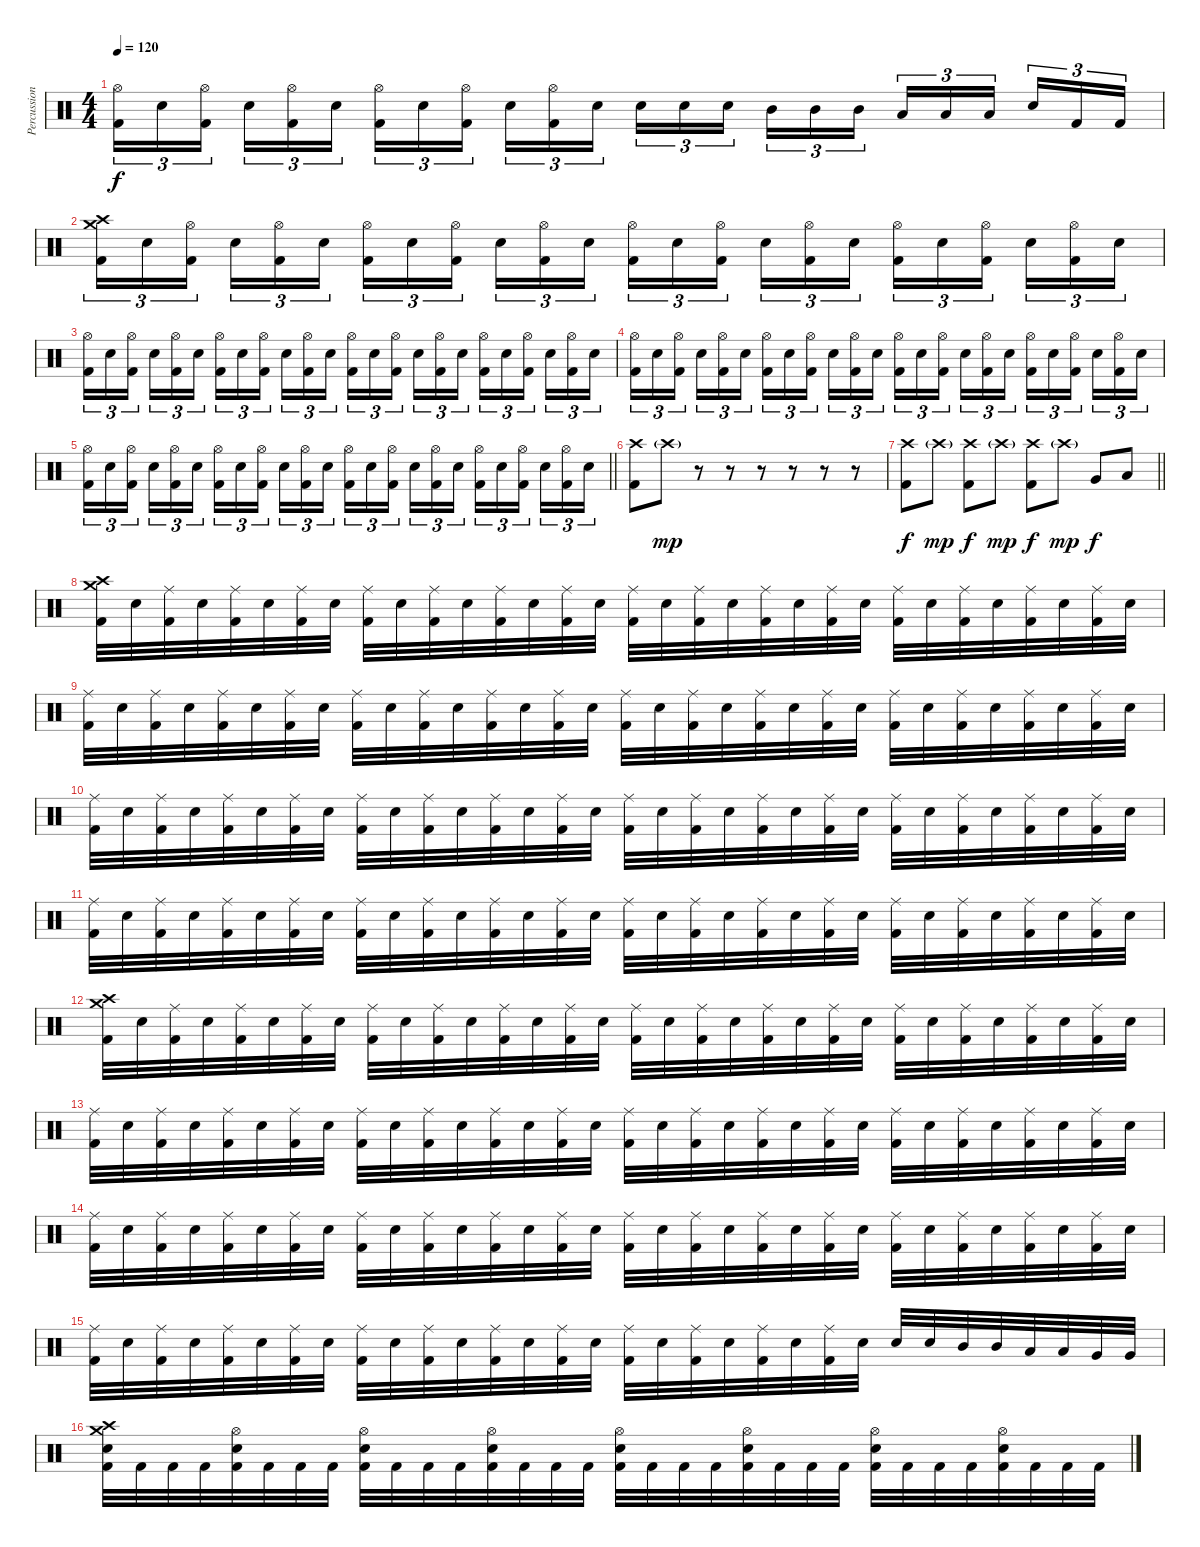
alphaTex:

\track ("Percussion" "Percussion") {instrument percussion}
\staff {score}
\articulation defaults
\ts (4 4)
\tempo 120
\clef neutral
\ks c
("Hi-Hat (open)" "Kick (hit) 2").16{tu (3 2) dy f} "Electric Snare (hit)".16{tu (3 2)} ("Hi-Hat (open)" "Kick (hit) 2").16{tu (3 2) beam splitsecondary} "Electric Snare (hit)".16{tu (3 2)} ("Hi-Hat (open)" "Kick (hit) 2").16{tu (3 2)} "Electric Snare (hit)".16{tu (3 2)} ("Hi-Hat (open)" "Kick (hit) 2").16{tu (3 2)} "Electric Snare (hit)".16{tu (3 2)} ("Hi-Hat (open)" "Kick (hit) 2").16{tu (3 2) beam splitsecondary} "Electric Snare (hit)".16{tu (3 2)} ("Hi-Hat (open)" "Kick (hit) 2").16{tu (3 2)} "Electric Snare (hit)".16{tu (3 2)} "Electric Snare (hit)".16{tu (3 2)} "Electric Snare (hit)".16{tu (3 2)} "Electric Snare (hit)".16{tu (3 2) beam splitsecondary} "Mid Tom (hit)".16{tu (3 2)} "Mid Tom (hit)".16{tu (3 2)} "Mid Tom (hit)".16{tu (3 2)} "Low Tom (hit)".16{tu (3 2)} "Low Tom (hit)".16{tu (3 2)} "Low Tom (hit)".16{tu (3 2) beam splitsecondary} "Electric Snare (hit)".16{tu (3 2)} "Kick (hit) 2".16{tu (3 2)} "Kick (hit) 2".16{tu (3 2)} |
("Crash medium (hit)" "Crash high (hit)" "Kick (hit) 2").16{tu (3 2)} "Electric Snare (hit)".16{tu (3 2)} ("Hi-Hat (open)" "Kick (hit) 2").16{tu (3 2) beam splitsecondary} "Electric Snare (hit)".16{tu (3 2)} ("Hi-Hat (open)" "Kick (hit) 2").16{tu (3 2)} "Electric Snare (hit)".16{tu (3 2)} ("Hi-Hat (open)" "Kick (hit) 2").16{tu (3 2)} "Electric Snare (hit)".16{tu (3 2)} ("Hi-Hat (open)" "Kick (hit) 2").16{tu (3 2) beam splitsecondary} "Electric Snare (hit)".16{tu (3 2)} ("Hi-Hat (open)" "Kick (hit) 2").16{tu (3 2)} "Electric Snare (hit)".16{tu (3 2)} ("Hi-Hat (open)" "Kick (hit) 2").16{tu (3 2)} "Electric Snare (hit)".16{tu (3 2)} ("Hi-Hat (open)" "Kick (hit) 2").16{tu (3 2) beam splitsecondary} "Electric Snare (hit)".16{tu (3 2)} ("Hi-Hat (open)" "Kick (hit) 2").16{tu (3 2)} "Electric Snare (hit)".16{tu (3 2)} ("Hi-Hat (open)" "Kick (hit) 2").16{tu (3 2)} "Electric Snare (hit)".16{tu (3 2)} ("Hi-Hat (open)" "Kick (hit) 2").16{tu (3 2) beam splitsecondary} "Electric Snare (hit)".16{tu (3 2)} ("Hi-Hat (open)" "Kick (hit) 2").16{tu (3 2)} "Electric Snare (hit)".16{tu (3 2)} |
("Hi-Hat (open)" "Kick (hit) 2").16{tu (3 2)} "Electric Snare (hit)".16{tu (3 2)} ("Hi-Hat (open)" "Kick (hit) 2").16{tu (3 2) beam splitsecondary} "Electric Snare (hit)".16{tu (3 2)} ("Hi-Hat (open)" "Kick (hit) 2").16{tu (3 2)} "Electric Snare (hit)".16{tu (3 2)} ("Hi-Hat (open)" "Kick (hit) 2").16{tu (3 2)} "Electric Snare (hit)".16{tu (3 2)} ("Hi-Hat (open)" "Kick (hit) 2").16{tu (3 2) beam splitsecondary} "Electric Snare (hit)".16{tu (3 2)} ("Hi-Hat (open)" "Kick (hit) 2").16{tu (3 2)} "Electric Snare (hit)".16{tu (3 2)} ("Hi-Hat (open)" "Kick (hit) 2").16{tu (3 2)} "Electric Snare (hit)".16{tu (3 2)} ("Hi-Hat (open)" "Kick (hit) 2").16{tu (3 2) beam splitsecondary} "Electric Snare (hit)".16{tu (3 2)} ("Hi-Hat (open)" "Kick (hit) 2").16{tu (3 2)} "Electric Snare (hit)".16{tu (3 2)} ("Hi-Hat (open)" "Kick (hit) 2").16{tu (3 2)} "Electric Snare (hit)".16{tu (3 2)} ("Hi-Hat (open)" "Kick (hit) 2").16{tu (3 2) beam splitsecondary} "Electric Snare (hit)".16{tu (3 2)} ("Hi-Hat (open)" "Kick (hit) 2").16{tu (3 2)} "Electric Snare (hit)".16{tu (3 2)} |
("Hi-Hat (open)" "Kick (hit) 2").16{tu (3 2)} "Electric Snare (hit)".16{tu (3 2)} ("Hi-Hat (open)" "Kick (hit) 2").16{tu (3 2) beam splitsecondary} "Electric Snare (hit)".16{tu (3 2)} ("Hi-Hat (open)" "Kick (hit) 2").16{tu (3 2)} "Electric Snare (hit)".16{tu (3 2)} ("Hi-Hat (open)" "Kick (hit) 2").16{tu (3 2)} "Electric Snare (hit)".16{tu (3 2)} ("Hi-Hat (open)" "Kick (hit) 2").16{tu (3 2) beam splitsecondary} "Electric Snare (hit)".16{tu (3 2)} ("Hi-Hat (open)" "Kick (hit) 2").16{tu (3 2)} "Electric Snare (hit)".16{tu (3 2)} ("Hi-Hat (open)" "Kick (hit) 2").16{tu (3 2)} "Electric Snare (hit)".16{tu (3 2)} ("Hi-Hat (open)" "Kick (hit) 2").16{tu (3 2) beam splitsecondary} "Electric Snare (hit)".16{tu (3 2)} ("Hi-Hat (open)" "Kick (hit) 2").16{tu (3 2)} "Electric Snare (hit)".16{tu (3 2)} ("Hi-Hat (open)" "Kick (hit) 2").16{tu (3 2)} "Electric Snare (hit)".16{tu (3 2)} ("Hi-Hat (open)" "Kick (hit) 2").16{tu (3 2) beam splitsecondary} "Electric Snare (hit)".16{tu (3 2)} ("Hi-Hat (open)" "Kick (hit) 2").16{tu (3 2)} "Electric Snare (hit)".16{tu (3 2)} |
\barLineRight lightlight
("Hi-Hat (open)" "Kick (hit) 2").16{tu (3 2)} "Electric Snare (hit)".16{tu (3 2)} ("Hi-Hat (open)" "Kick (hit) 2").16{tu (3 2) beam splitsecondary} "Electric Snare (hit)".16{tu (3 2)} ("Hi-Hat (open)" "Kick (hit) 2").16{tu (3 2)} "Electric Snare (hit)".16{tu (3 2)} ("Hi-Hat (open)" "Kick (hit) 2").16{tu (3 2)} "Electric Snare (hit)".16{tu (3 2)} ("Hi-Hat (open)" "Kick (hit) 2").16{tu (3 2) beam splitsecondary} "Electric Snare (hit)".16{tu (3 2)} ("Hi-Hat (open)" "Kick (hit) 2").16{tu (3 2)} "Electric Snare (hit)".16{tu (3 2)} ("Hi-Hat (open)" "Kick (hit) 2").16{tu (3 2)} "Electric Snare (hit)".16{tu (3 2)} ("Hi-Hat (open)" "Kick (hit) 2").16{tu (3 2) beam splitsecondary} "Electric Snare (hit)".16{tu (3 2)} ("Hi-Hat (open)" "Kick (hit) 2").16{tu (3 2)} "Electric Snare (hit)".16{tu (3 2)} ("Hi-Hat (open)" "Kick (hit) 2").16{tu (3 2)} "Electric Snare (hit)".16{tu (3 2)} ("Hi-Hat (open)" "Kick (hit) 2").16{tu (3 2) beam splitsecondary} "Electric Snare (hit)".16{tu (3 2)} ("Hi-Hat (open)" "Kick (hit) 2").16{tu (3 2)} "Electric Snare (hit)".16{tu (3 2)} |
("Crash high (hit)" "Kick (hit) 2").8 "Crash high (hit)"{g}.8{dy mp} r.8 r.8 r.8 r.8 r.8 r.8 |
\barLineRight lightlight
("Crash high (hit)" "Kick (hit) 2").8{dy f} "Crash high (hit)"{g}.8{dy mp} ("Crash high (hit)" "Kick (hit) 2").8{dy f} "Crash high (hit)"{g}.8{dy mp} ("Crash high (hit)" "Kick (hit) 2").8{dy f} "Crash high (hit)"{g}.8{dy mp} "Very Low Tom (hit)".8{dy f} "Low Floor Tom (hit)".8 |
("Crash medium (hit)" "Crash high (hit)" "Kick (hit) 2").32 "Electric Snare (hit)".32 ("Ride (middle)" "Kick (hit) 2").32 "Electric Snare (hit)".32 ("Ride (middle)" "Kick (hit) 2").32 "Electric Snare (hit)".32 ("Ride (middle)" "Kick (hit) 2").32 "Electric Snare (hit)".32 ("Ride (middle)" "Kick (hit) 2").32 "Electric Snare (hit)".32 ("Ride (middle)" "Kick (hit) 2").32 "Electric Snare (hit)".32 ("Ride (middle)" "Kick (hit) 2").32 "Electric Snare (hit)".32 ("Ride (middle)" "Kick (hit) 2").32 "Electric Snare (hit)".32 ("Ride (middle)" "Kick (hit) 2").32 "Electric Snare (hit)".32 ("Ride (middle)" "Kick (hit) 2").32 "Electric Snare (hit)".32 ("Ride (middle)" "Kick (hit) 2").32 "Electric Snare (hit)".32 ("Ride (middle)" "Kick (hit) 2").32 "Electric Snare (hit)".32 ("Ride (middle)" "Kick (hit) 2").32 "Electric Snare (hit)".32 ("Ride (middle)" "Kick (hit) 2").32 "Electric Snare (hit)".32 ("Ride (middle)" "Kick (hit) 2").32 "Electric Snare (hit)".32 ("Ride (middle)" "Kick (hit) 2").32 "Electric Snare (hit)".32 |
("Ride (middle)" "Kick (hit) 2").32 "Electric Snare (hit)".32 ("Ride (middle)" "Kick (hit) 2").32 "Electric Snare (hit)".32 ("Ride (middle)" "Kick (hit) 2").32 "Electric Snare (hit)".32 ("Ride (middle)" "Kick (hit) 2").32 "Electric Snare (hit)".32 ("Ride (middle)" "Kick (hit) 2").32 "Electric Snare (hit)".32 ("Ride (middle)" "Kick (hit) 2").32 "Electric Snare (hit)".32 ("Ride (middle)" "Kick (hit) 2").32 "Electric Snare (hit)".32 ("Ride (middle)" "Kick (hit) 2").32 "Electric Snare (hit)".32 ("Ride (middle)" "Kick (hit) 2").32 "Electric Snare (hit)".32 ("Ride (middle)" "Kick (hit) 2").32 "Electric Snare (hit)".32 ("Ride (middle)" "Kick (hit) 2").32 "Electric Snare (hit)".32 ("Ride (middle)" "Kick (hit) 2").32 "Electric Snare (hit)".32 ("Ride (middle)" "Kick (hit) 2").32 "Electric Snare (hit)".32 ("Ride (middle)" "Kick (hit) 2").32 "Electric Snare (hit)".32 ("Ride (middle)" "Kick (hit) 2").32 "Electric Snare (hit)".32 ("Ride (middle)" "Kick (hit) 2").32 "Electric Snare (hit)".32 |
("Ride (middle)" "Kick (hit) 2").32 "Electric Snare (hit)".32 ("Ride (middle)" "Kick (hit) 2").32 "Electric Snare (hit)".32 ("Ride (middle)" "Kick (hit) 2").32 "Electric Snare (hit)".32 ("Ride (middle)" "Kick (hit) 2").32 "Electric Snare (hit)".32 ("Ride (middle)" "Kick (hit) 2").32 "Electric Snare (hit)".32 ("Ride (middle)" "Kick (hit) 2").32 "Electric Snare (hit)".32 ("Ride (middle)" "Kick (hit) 2").32 "Electric Snare (hit)".32 ("Ride (middle)" "Kick (hit) 2").32 "Electric Snare (hit)".32 ("Ride (middle)" "Kick (hit) 2").32 "Electric Snare (hit)".32 ("Ride (middle)" "Kick (hit) 2").32 "Electric Snare (hit)".32 ("Ride (middle)" "Kick (hit) 2").32 "Electric Snare (hit)".32 ("Ride (middle)" "Kick (hit) 2").32 "Electric Snare (hit)".32 ("Ride (middle)" "Kick (hit) 2").32 "Electric Snare (hit)".32 ("Ride (middle)" "Kick (hit) 2").32 "Electric Snare (hit)".32 ("Ride (middle)" "Kick (hit) 2").32 "Electric Snare (hit)".32 ("Ride (middle)" "Kick (hit) 2").32 "Electric Snare (hit)".32 |
("Ride (middle)" "Kick (hit) 2").32 "Electric Snare (hit)".32 ("Ride (middle)" "Kick (hit) 2").32 "Electric Snare (hit)".32 ("Ride (middle)" "Kick (hit) 2").32 "Electric Snare (hit)".32 ("Ride (middle)" "Kick (hit) 2").32 "Electric Snare (hit)".32 ("Ride (middle)" "Kick (hit) 2").32 "Electric Snare (hit)".32 ("Ride (middle)" "Kick (hit) 2").32 "Electric Snare (hit)".32 ("Ride (middle)" "Kick (hit) 2").32 "Electric Snare (hit)".32 ("Ride (middle)" "Kick (hit) 2").32 "Electric Snare (hit)".32 ("Ride (middle)" "Kick (hit) 2").32 "Electric Snare (hit)".32 ("Ride (middle)" "Kick (hit) 2").32 "Electric Snare (hit)".32 ("Ride (middle)" "Kick (hit) 2").32 "Electric Snare (hit)".32 ("Ride (middle)" "Kick (hit) 2").32 "Electric Snare (hit)".32 ("Ride (middle)" "Kick (hit) 2").32 "Electric Snare (hit)".32 ("Ride (middle)" "Kick (hit) 2").32 "Electric Snare (hit)".32 ("Ride (middle)" "Kick (hit) 2").32 "Electric Snare (hit)".32 ("Ride (middle)" "Kick (hit) 2").32 "Electric Snare (hit)".32 |
("Crash medium (hit)" "Crash high (hit)" "Kick (hit) 2").32 "Electric Snare (hit)".32 ("Ride (middle)" "Kick (hit) 2").32 "Electric Snare (hit)".32 ("Ride (middle)" "Kick (hit) 2").32 "Electric Snare (hit)".32 ("Ride (middle)" "Kick (hit) 2").32 "Electric Snare (hit)".32 ("Ride (middle)" "Kick (hit) 2").32 "Electric Snare (hit)".32 ("Ride (middle)" "Kick (hit) 2").32 "Electric Snare (hit)".32 ("Ride (middle)" "Kick (hit) 2").32 "Electric Snare (hit)".32 ("Ride (middle)" "Kick (hit) 2").32 "Electric Snare (hit)".32 ("Ride (middle)" "Kick (hit) 2").32 "Electric Snare (hit)".32 ("Ride (middle)" "Kick (hit) 2").32 "Electric Snare (hit)".32 ("Ride (middle)" "Kick (hit) 2").32 "Electric Snare (hit)".32 ("Ride (middle)" "Kick (hit) 2").32 "Electric Snare (hit)".32 ("Ride (middle)" "Kick (hit) 2").32 "Electric Snare (hit)".32 ("Ride (middle)" "Kick (hit) 2").32 "Electric Snare (hit)".32 ("Ride (middle)" "Kick (hit) 2").32 "Electric Snare (hit)".32 ("Ride (middle)" "Kick (hit) 2").32 "Electric Snare (hit)".32 |
("Ride (middle)" "Kick (hit) 2").32 "Electric Snare (hit)".32 ("Ride (middle)" "Kick (hit) 2").32 "Electric Snare (hit)".32 ("Ride (middle)" "Kick (hit) 2").32 "Electric Snare (hit)".32 ("Ride (middle)" "Kick (hit) 2").32 "Electric Snare (hit)".32 ("Ride (middle)" "Kick (hit) 2").32 "Electric Snare (hit)".32 ("Ride (middle)" "Kick (hit) 2").32 "Electric Snare (hit)".32 ("Ride (middle)" "Kick (hit) 2").32 "Electric Snare (hit)".32 ("Ride (middle)" "Kick (hit) 2").32 "Electric Snare (hit)".32 ("Ride (middle)" "Kick (hit) 2").32 "Electric Snare (hit)".32 ("Ride (middle)" "Kick (hit) 2").32 "Electric Snare (hit)".32 ("Ride (middle)" "Kick (hit) 2").32 "Electric Snare (hit)".32 ("Ride (middle)" "Kick (hit) 2").32 "Electric Snare (hit)".32 ("Ride (middle)" "Kick (hit) 2").32 "Electric Snare (hit)".32 ("Ride (middle)" "Kick (hit) 2").32 "Electric Snare (hit)".32 ("Ride (middle)" "Kick (hit) 2").32 "Electric Snare (hit)".32 ("Ride (middle)" "Kick (hit) 2").32 "Electric Snare (hit)".32 |
("Ride (middle)" "Kick (hit) 2").32 "Electric Snare (hit)".32 ("Ride (middle)" "Kick (hit) 2").32 "Electric Snare (hit)".32 ("Ride (middle)" "Kick (hit) 2").32 "Electric Snare (hit)".32 ("Ride (middle)" "Kick (hit) 2").32 "Electric Snare (hit)".32 ("Ride (middle)" "Kick (hit) 2").32 "Electric Snare (hit)".32 ("Ride (middle)" "Kick (hit) 2").32 "Electric Snare (hit)".32 ("Ride (middle)" "Kick (hit) 2").32 "Electric Snare (hit)".32 ("Ride (middle)" "Kick (hit) 2").32 "Electric Snare (hit)".32 ("Ride (middle)" "Kick (hit) 2").32 "Electric Snare (hit)".32 ("Ride (middle)" "Kick (hit) 2").32 "Electric Snare (hit)".32 ("Ride (middle)" "Kick (hit) 2").32 "Electric Snare (hit)".32 ("Ride (middle)" "Kick (hit) 2").32 "Electric Snare (hit)".32 ("Ride (middle)" "Kick (hit) 2").32 "Electric Snare (hit)".32 ("Ride (middle)" "Kick (hit) 2").32 "Electric Snare (hit)".32 ("Ride (middle)" "Kick (hit) 2").32 "Electric Snare (hit)".32 ("Ride (middle)" "Kick (hit) 2").32 "Electric Snare (hit)".32 |
("Ride (middle)" "Kick (hit) 2").32 "Electric Snare (hit)".32 ("Ride (middle)" "Kick (hit) 2").32 "Electric Snare (hit)".32 ("Ride (middle)" "Kick (hit) 2").32 "Electric Snare (hit)".32 ("Ride (middle)" "Kick (hit) 2").32 "Electric Snare (hit)".32 ("Ride (middle)" "Kick (hit) 2").32 "Electric Snare (hit)".32 ("Ride (middle)" "Kick (hit) 2").32 "Electric Snare (hit)".32 ("Ride (middle)" "Kick (hit) 2").32 "Electric Snare (hit)".32 ("Ride (middle)" "Kick (hit) 2").32 "Electric Snare (hit)".32 ("Ride (middle)" "Kick (hit) 2").32 "Electric Snare (hit)".32 ("Ride (middle)" "Kick (hit) 2").32 "Electric Snare (hit)".32 ("Ride (middle)" "Kick (hit) 2").32 "Electric Snare (hit)".32 ("Ride (middle)" "Kick (hit) 2").32 "Electric Snare (hit)".32 "Electric Snare (hit)".32 "Electric Snare (hit)".32 "Mid Tom (hit)".32 "Mid Tom (hit)".32 "Low Tom (hit)".32 "Low Tom (hit)".32 "Very Low Tom (hit)".32 "Very Low Tom (hit)".32 |
("Crash medium (hit)" "Crash high (hit)" "Electric Snare (hit)" "Kick (hit) 2").32 "Kick (hit) 2".32 "Kick (hit) 2".32 "Kick (hit) 2".32 ("Hi-Hat (open)" "Electric Snare (hit)" "Kick (hit) 2").32 "Kick (hit) 2".32 "Kick (hit) 2".32 "Kick (hit) 2".32 ("Hi-Hat (open)" "Electric Snare (hit)" "Kick (hit) 2").32 "Kick (hit) 2".32 "Kick (hit) 2".32 "Kick (hit) 2".32 ("Hi-Hat (open)" "Electric Snare (hit)" "Kick (hit) 2").32 "Kick (hit) 2".32 "Kick (hit) 2".32 "Kick (hit) 2".32 ("Hi-Hat (open)" "Electric Snare (hit)" "Kick (hit) 2").32 "Kick (hit) 2".32 "Kick (hit) 2".32 "Kick (hit) 2".32 ("Hi-Hat (open)" "Electric Snare (hit)" "Kick (hit) 2").32 "Kick (hit) 2".32 "Kick (hit) 2".32 "Kick (hit) 2".32 ("Hi-Hat (open)" "Electric Snare (hit)" "Kick (hit) 2").32 "Kick (hit) 2".32 "Kick (hit) 2".32 "Kick (hit) 2".32 ("Hi-Hat (open)" "Electric Snare (hit)" "Kick (hit) 2").32 "Kick (hit) 2".32 "Kick (hit) 2".32 "Kick (hit) 2".32
